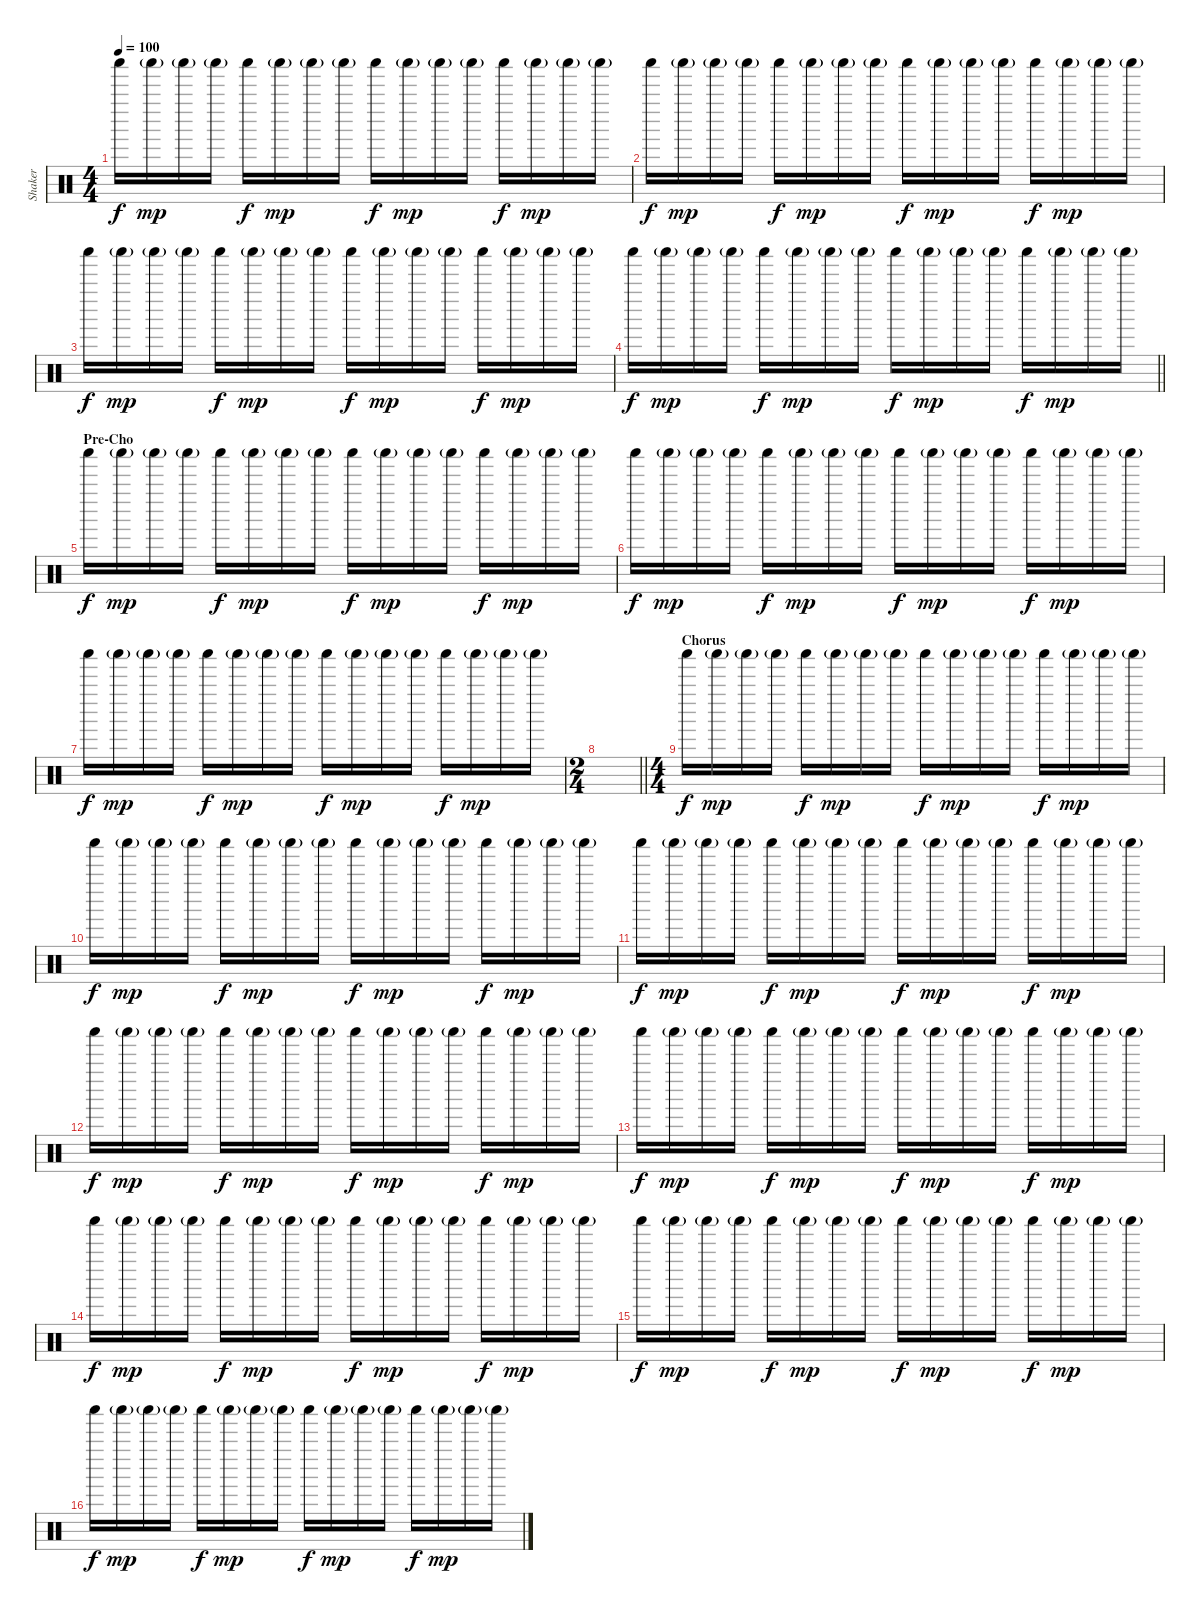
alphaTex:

\track ("Shaker" "Shaker") {instrument percussion}
\staff {score}
\articulation defaults
\ts (4 4)
\tempo 100
\clef neutral
\ks c "Shaker (hit)".16{dy f} "Shaker (hit)"{g}.16{dy mp} "Shaker (hit)"{g}.16 "Shaker (hit)"{g}.16 "Shaker (hit)".16{dy f} "Shaker (hit)"{g}.16{dy mp} "Shaker (hit)"{g}.16 "Shaker (hit)"{g}.16 "Shaker (hit)".16{dy f} "Shaker (hit)"{g}.16{dy mp} "Shaker (hit)"{g}.16 "Shaker (hit)"{g}.16 "Shaker (hit)".16{dy f} "Shaker (hit)"{g}.16{dy mp} "Shaker (hit)"{g}.16 "Shaker (hit)"{g}.16
|
"Shaker (hit)".16{dy f} "Shaker (hit)"{g}.16{dy mp} "Shaker (hit)"{g}.16 "Shaker (hit)"{g}.16 "Shaker (hit)".16{dy f} "Shaker (hit)"{g}.16{dy mp} "Shaker (hit)"{g}.16 "Shaker (hit)"{g}.16 "Shaker (hit)".16{dy f} "Shaker (hit)"{g}.16{dy mp} "Shaker (hit)"{g}.16 "Shaker (hit)"{g}.16 "Shaker (hit)".16{dy f} "Shaker (hit)"{g}.16{dy mp} "Shaker (hit)"{g}.16 "Shaker (hit)"{g}.16 |
"Shaker (hit)".16{dy f} "Shaker (hit)"{g}.16{dy mp} "Shaker (hit)"{g}.16 "Shaker (hit)"{g}.16 "Shaker (hit)".16{dy f} "Shaker (hit)"{g}.16{dy mp} "Shaker (hit)"{g}.16 "Shaker (hit)"{g}.16 "Shaker (hit)".16{dy f} "Shaker (hit)"{g}.16{dy mp} "Shaker (hit)"{g}.16 "Shaker (hit)"{g}.16 "Shaker (hit)".16{dy f} "Shaker (hit)"{g}.16{dy mp} "Shaker (hit)"{g}.16 "Shaker (hit)"{g}.16 |
\barLineRight lightlight "Shaker (hit)".16{dy f} "Shaker (hit)"{g}.16{dy mp} "Shaker (hit)"{g}.16 "Shaker (hit)"{g}.16 "Shaker (hit)".16{dy f} "Shaker (hit)"{g}.16{dy mp} "Shaker (hit)"{g}.16 "Shaker (hit)"{g}.16 "Shaker (hit)".16{dy f} "Shaker (hit)"{g}.16{dy mp} "Shaker (hit)"{g}.16 "Shaker (hit)"{g}.16 "Shaker (hit)".16{dy f} "Shaker (hit)"{g}.16{dy mp} "Shaker (hit)"{g}.16 "Shaker (hit)"{g}.16
|
\section ("" "Pre-Cho")
"Shaker (hit)".16{dy f} "Shaker (hit)"{g}.16{dy mp} "Shaker (hit)"{g}.16 "Shaker (hit)"{g}.16 "Shaker (hit)".16{dy f} "Shaker (hit)"{g}.16{dy mp} "Shaker (hit)"{g}.16 "Shaker (hit)"{g}.16 "Shaker (hit)".16{dy f} "Shaker (hit)"{g}.16{dy mp} "Shaker (hit)"{g}.16 "Shaker (hit)"{g}.16 "Shaker (hit)".16{dy f} "Shaker (hit)"{g}.16{dy mp} "Shaker (hit)"{g}.16 "Shaker (hit)"{g}.16 |
"Shaker (hit)".16{dy f} "Shaker (hit)"{g}.16{dy mp} "Shaker (hit)"{g}.16 "Shaker (hit)"{g}.16 "Shaker (hit)".16{dy f} "Shaker (hit)"{g}.16{dy mp} "Shaker (hit)"{g}.16 "Shaker (hit)"{g}.16 "Shaker (hit)".16{dy f} "Shaker (hit)"{g}.16{dy mp} "Shaker (hit)"{g}.16 "Shaker (hit)"{g}.16 "Shaker (hit)".16{dy f} "Shaker (hit)"{g}.16{dy mp} "Shaker (hit)"{g}.16 "Shaker (hit)"{g}.16 |
"Shaker (hit)".16{dy f} "Shaker (hit)"{g}.16{dy mp} "Shaker (hit)"{g}.16 "Shaker (hit)"{g}.16 "Shaker (hit)".16{dy f} "Shaker (hit)"{g}.16{dy mp} "Shaker (hit)"{g}.16 "Shaker (hit)"{g}.16 "Shaker (hit)".16{dy f} "Shaker (hit)"{g}.16{dy mp} "Shaker (hit)"{g}.16 "Shaker (hit)"{g}.16 "Shaker (hit)".16{dy f} "Shaker (hit)"{g}.16{dy mp} "Shaker (hit)"{g}.16 "Shaker (hit)"{g}.16 |
\ts (2 4)
\barLineRight lightlight
|
\ts (4 4)
\section ("" "Chorus")
"Shaker (hit)".16{dy f} "Shaker (hit)"{g}.16{dy mp} "Shaker (hit)"{g}.16 "Shaker (hit)"{g}.16 "Shaker (hit)".16{dy f} "Shaker (hit)"{g}.16{dy mp} "Shaker (hit)"{g}.16 "Shaker (hit)"{g}.16 "Shaker (hit)".16{dy f} "Shaker (hit)"{g}.16{dy mp} "Shaker (hit)"{g}.16 "Shaker (hit)"{g}.16 "Shaker (hit)".16{dy f} "Shaker (hit)"{g}.16{dy mp} "Shaker (hit)"{g}.16 "Shaker (hit)"{g}.16 |
"Shaker (hit)".16{dy f} "Shaker (hit)"{g}.16{dy mp} "Shaker (hit)"{g}.16 "Shaker (hit)"{g}.16 "Shaker (hit)".16{dy f} "Shaker (hit)"{g}.16{dy mp} "Shaker (hit)"{g}.16 "Shaker (hit)"{g}.16 "Shaker (hit)".16{dy f} "Shaker (hit)"{g}.16{dy mp} "Shaker (hit)"{g}.16 "Shaker (hit)"{g}.16 "Shaker (hit)".16{dy f} "Shaker (hit)"{g}.16{dy mp} "Shaker (hit)"{g}.16 "Shaker (hit)"{g}.16 |
"Shaker (hit)".16{dy f} "Shaker (hit)"{g}.16{dy mp} "Shaker (hit)"{g}.16 "Shaker (hit)"{g}.16 "Shaker (hit)".16{dy f} "Shaker (hit)"{g}.16{dy mp} "Shaker (hit)"{g}.16 "Shaker (hit)"{g}.16 "Shaker (hit)".16{dy f} "Shaker (hit)"{g}.16{dy mp} "Shaker (hit)"{g}.16 "Shaker (hit)"{g}.16 "Shaker (hit)".16{dy f} "Shaker (hit)"{g}.16{dy mp} "Shaker (hit)"{g}.16 "Shaker (hit)"{g}.16 |
"Shaker (hit)".16{dy f} "Shaker (hit)"{g}.16{dy mp} "Shaker (hit)"{g}.16 "Shaker (hit)"{g}.16 "Shaker (hit)".16{dy f} "Shaker (hit)"{g}.16{dy mp} "Shaker (hit)"{g}.16 "Shaker (hit)"{g}.16 "Shaker (hit)".16{dy f} "Shaker (hit)"{g}.16{dy mp} "Shaker (hit)"{g}.16 "Shaker (hit)"{g}.16 "Shaker (hit)".16{dy f} "Shaker (hit)"{g}.16{dy mp} "Shaker (hit)"{g}.16 "Shaker (hit)"{g}.16 |
"Shaker (hit)".16{dy f} "Shaker (hit)"{g}.16{dy mp} "Shaker (hit)"{g}.16 "Shaker (hit)"{g}.16 "Shaker (hit)".16{dy f} "Shaker (hit)"{g}.16{dy mp} "Shaker (hit)"{g}.16 "Shaker (hit)"{g}.16 "Shaker (hit)".16{dy f} "Shaker (hit)"{g}.16{dy mp} "Shaker (hit)"{g}.16 "Shaker (hit)"{g}.16 "Shaker (hit)".16{dy f} "Shaker (hit)"{g}.16{dy mp} "Shaker (hit)"{g}.16 "Shaker (hit)"{g}.16 |
"Shaker (hit)".16{dy f} "Shaker (hit)"{g}.16{dy mp} "Shaker (hit)"{g}.16 "Shaker (hit)"{g}.16 "Shaker (hit)".16{dy f} "Shaker (hit)"{g}.16{dy mp} "Shaker (hit)"{g}.16 "Shaker (hit)"{g}.16 "Shaker (hit)".16{dy f} "Shaker (hit)"{g}.16{dy mp} "Shaker (hit)"{g}.16 "Shaker (hit)"{g}.16 "Shaker (hit)".16{dy f} "Shaker (hit)"{g}.16{dy mp} "Shaker (hit)"{g}.16 "Shaker (hit)"{g}.16 |
"Shaker (hit)".16{dy f} "Shaker (hit)"{g}.16{dy mp} "Shaker (hit)"{g}.16 "Shaker (hit)"{g}.16 "Shaker (hit)".16{dy f} "Shaker (hit)"{g}.16{dy mp} "Shaker (hit)"{g}.16 "Shaker (hit)"{g}.16 "Shaker (hit)".16{dy f} "Shaker (hit)"{g}.16{dy mp} "Shaker (hit)"{g}.16 "Shaker (hit)"{g}.16 "Shaker (hit)".16{dy f} "Shaker (hit)"{g}.16{dy mp} "Shaker (hit)"{g}.16 "Shaker (hit)"{g}.16 |
"Shaker (hit)".16{dy f} "Shaker (hit)"{g}.16{dy mp} "Shaker (hit)"{g}.16 "Shaker (hit)"{g}.16 "Shaker (hit)".16{dy f} "Shaker (hit)"{g}.16{dy mp} "Shaker (hit)"{g}.16 "Shaker (hit)"{g}.16 "Shaker (hit)".16{dy f} "Shaker (hit)"{g}.16{dy mp} "Shaker (hit)"{g}.16 "Shaker (hit)"{g}.16 "Shaker (hit)".16{dy f} "Shaker (hit)"{g}.16{dy mp} "Shaker (hit)"{g}.16 "Shaker (hit)"{g}.16
